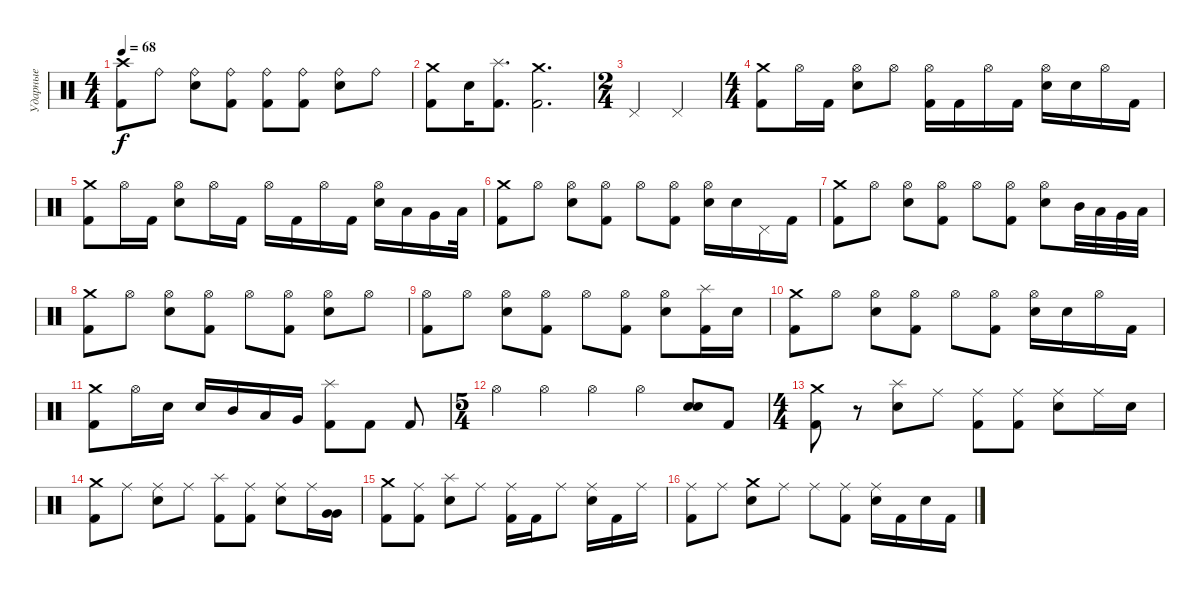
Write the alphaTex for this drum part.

\track ("Ударные" "Ударные") {instrument percussion}
\staff {score}
\articulation defaults
\ts (4 4)
\tempo 68
\clef neutral
\ks c
("Kick (hit) 2" "Crash high (hit)").8{dy f} "Ride (bell)".8 ("Snare (hit) 2" "Ride (bell)").8 ("Kick (hit) 2" "Ride (bell)").8 ("Kick (hit) 2" "Ride (bell)").8 ("Kick (hit) 2" "Ride (bell)").8 ("Snare (hit) 2" "Ride (bell)").8 "Ride (bell)".8 |
("Crash medium (hit)" "Kick (hit) 2").8 "Snare (hit) 2".16 ("Splash (hit)" "Kick (hit) 2").8{d} ("Crash medium (hit)" "Kick (hit) 2").2{d} |
\ts (2 4)
"Pedal Hi-Hat (hit)".4 "Pedal Hi-Hat (hit)".4 |
\ts (4 4)
("Crash medium (hit)" "Kick (hit) 2").8 "Hi-Hat (open)".16 "Kick (hit) 2".16 ("Hi-Hat (open)" "Snare (hit) 2").8 "Hi-Hat (open)".8 ("Hi-Hat (open)" "Kick (hit) 2").16 "Kick (hit) 2".16 "Hi-Hat (open)".16 "Kick (hit) 2".16 ("Snare (hit) 2" "Hi-Hat (open)").16 "Snare (hit) 2".16 "Hi-Hat (open)".16 "Kick (hit) 2".16 |
("Crash medium (hit)" "Kick (hit) 2").8 "Hi-Hat (open)".16 "Kick (hit) 2".16 ("Hi-Hat (open)" "Snare (hit) 2").8 "Hi-Hat (open)".16 "Kick (hit) 2".16 "Hi-Hat (open)".16 "Kick (hit) 2".16 "Hi-Hat (open)".16 "Kick (hit) 2".16 ("Snare (hit) 2" "Hi-Hat (open)").16 "Low Tom (hit)".16 "Very Low Tom (hit)".16 "Low Floor Tom (hit)".32 |
("Crash medium (hit)" "Kick (hit) 2").8 "Hi-Hat (open)".8 ("Hi-Hat (open)" "Snare (hit) 2").8 ("Hi-Hat (open)" "Kick (hit) 2").8 "Hi-Hat (open)".8 ("Hi-Hat (open)" "Kick (hit) 2").8 ("Hi-Hat (open)" "Snare (hit) 2").16 "Snare (hit) 2".16 "Pedal Hi-Hat (hit)".16 "Kick (hit) 2".16 |
("Crash medium (hit)" "Kick (hit) 2").8 "Hi-Hat (open)".8 ("Hi-Hat (open)" "Snare (hit) 2").8 ("Hi-Hat (open)" "Kick (hit) 2").8 "Hi-Hat (open)".8 ("Hi-Hat (open)" "Kick (hit) 2").8 ("Hi-Hat (open)" "Snare (hit) 2").8 "Mid Tom (hit)".32 "Low Tom (hit)".32 "Very Low Tom (hit)".32 "Low Floor Tom (hit)".32 |
("Crash medium (hit)" "Kick (hit) 2").8 "Hi-Hat (open)".8 ("Hi-Hat (open)" "Snare (hit) 2").8 ("Hi-Hat (open)" "Kick (hit) 2").8 "Hi-Hat (open)".8 ("Hi-Hat (open)" "Kick (hit) 2").8 ("Hi-Hat (open)" "Snare (hit) 2").8 "Hi-Hat (open)".8 |
("Hi-Hat (open)" "Kick (hit) 2").8 "Hi-Hat (open)".8 ("Hi-Hat (open)" "Snare (hit) 2").8 ("Hi-Hat (open)" "Kick (hit) 2").8 "Hi-Hat (open)".8 ("Hi-Hat (open)" "Kick (hit) 2").8 ("Hi-Hat (open)" "Snare (hit) 2").8 ("Splash (hit)" "Kick (hit) 2").16 "Snare (hit) 2".16 |
("Crash medium (hit)" "Kick (hit) 2").8 "Hi-Hat (open)".8 ("Hi-Hat (open)" "Snare (hit) 2").8 ("Hi-Hat (open)" "Kick (hit) 2").8 "Hi-Hat (open)".8 ("Hi-Hat (open)" "Kick (hit) 2").8 ("Hi-Hat (open)" "Snare (hit) 2").16 "Snare (hit) 2".16 "Hi-Hat (open)".16 "Kick (hit) 2".16 |
("Crash medium (hit)" "Kick (hit) 2").8 "Hi-Hat (open)".16 "Snare (hit) 2".16 "Snare (hit) 2".16 "Mid Tom (hit)".16 "Low Tom (hit)".16 "Very Low Tom (hit)".16 ("Splash (hit)" "Kick (hit) 2").8 "Kick (hit) 2".8 "Kick (hit) 2".8 |
\ts (5 4)
"Hi-Hat (open)".4 "Hi-Hat (open)".4 "Hi-Hat (open)".4 "Hi-Hat (open)".4 ("Snare (hit) 2" "Snare (hit) 2").8{bd 120} "Kick (hit) 2".8 |
\ts (4 4)
("Crash medium (hit)" "Kick (hit) 2").8 r.8 ("Splash (hit)" "Snare (hit) 2").8 "Ride (middle)".8 ("Ride (middle)" "Kick (hit) 2").8 ("Ride (middle)" "Kick (hit) 2").8 ("Ride (middle)" "Snare (hit) 2").8 "Ride (middle)".16 "Snare (hit) 2".16 |
("Crash medium (hit)" "Kick (hit) 2").8 "Ride (middle)".8 ("Ride (middle)" "Snare (hit) 2").8 "Ride (middle)".8 ("Splash (hit)" "Kick (hit) 2").8 ("Ride (middle)" "Kick (hit) 2").8 ("Ride (middle)" "Snare (hit) 2").8 "Ride (middle)".16 ("Very Low Tom (hit)" "Very Low Tom (hit)").16{bd 120} |
("Crash medium (hit)" "Kick (hit) 2").8 ("Ride (middle)" "Kick (hit) 2").8 ("Splash (hit)" "Snare (hit) 2").8 "Ride (middle)".8 ("Ride (middle)" "Kick (hit) 2").16 "Kick (hit) 2".16 "Ride (middle)".8 ("Ride (middle)" "Snare (hit) 2").16 "Kick (hit) 2".16 "Ride (middle)".16 |
("Ride (middle)" "Kick (hit) 2").8 "Ride (middle)".8 ("Crash medium (hit)" "Snare (hit) 2").8 "Ride (middle)".8 "Ride (middle)".8 ("Ride (middle)" "Kick (hit) 2").8 ("Ride (middle)" "Snare (hit) 2").16 "Kick (hit) 2".16 "Snare (hit) 2".16 "Kick (hit) 2".16
